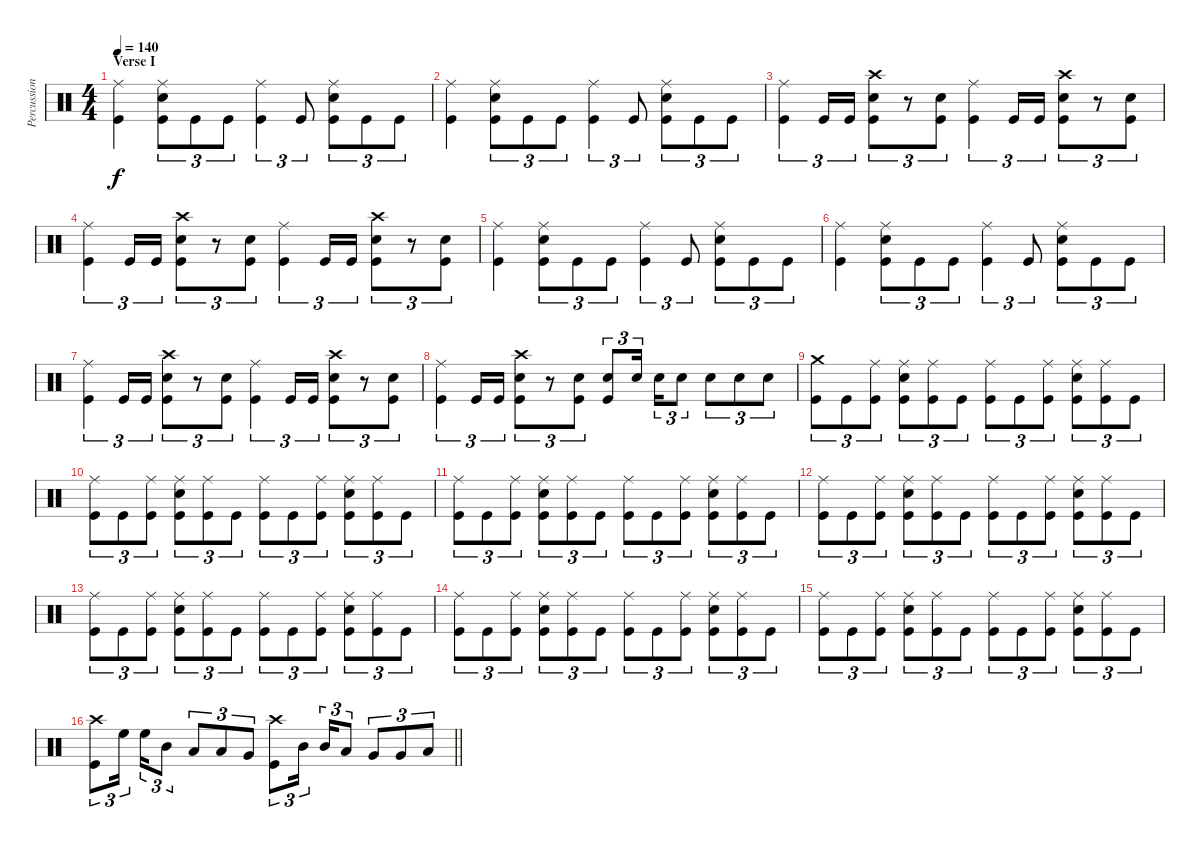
\track ("Percussion" "Percussion") {instrument percussion}
\staff {score}
\articulation defaults
\ts (4 4)
\section ("" "Verse I")
\tempo 140
\clef neutral
\ks c
("Ride (middle)" "Kick (hit)").4{dy f} ("Ride (middle)" "Snare (hit) 2" "Kick (hit)").8{tu (3 2)} "Kick (hit)".8{tu (3 2)} "Kick (hit)".8{tu (3 2)} ("Ride (middle)" "Kick (hit)").4{tu (3 2)} "Kick (hit)".8{tu (3 2)} ("Ride (middle)" "Snare (hit) 2" "Kick (hit)").8{tu (3 2)} "Kick (hit)".8{tu (3 2)} "Kick (hit)".8{tu (3 2)} |
("Ride (middle)" "Kick (hit)").4 ("Ride (middle)" "Snare (hit) 2" "Kick (hit)").8{tu (3 2)} "Kick (hit)".8{tu (3 2)} "Kick (hit)".8{tu (3 2)} ("Ride (middle)" "Kick (hit)").4{tu (3 2)} "Kick (hit)".8{tu (3 2)} ("Ride (middle)" "Snare (hit) 2" "Kick (hit)").8{tu (3 2)} "Kick (hit)".8{tu (3 2)} "Kick (hit)".8{tu (3 2)} |
("Ride (middle)" "Kick (hit)").4{tu (3 2)} "Kick (hit)".16{tu (3 2)} "Kick (hit)".16{tu (3 2)} ("Crash high (hit)" "Snare (hit) 2" "Kick (hit)").8{tu (3 2)} r.8{tu (3 2)} ("Snare (hit) 2" "Kick (hit)").8{tu (3 2)} ("Ride (middle)" "Kick (hit)").4{tu (3 2)} "Kick (hit)".16{tu (3 2)} "Kick (hit)".16{tu (3 2)} ("Crash high (hit)" "Snare (hit) 2" "Kick (hit)").8{tu (3 2)} r.8{tu (3 2)} ("Snare (hit) 2" "Kick (hit)").8{tu (3 2)} |
("Ride (middle)" "Kick (hit)").4{tu (3 2)} "Kick (hit)".16{tu (3 2)} "Kick (hit)".16{tu (3 2)} ("Crash high (hit)" "Snare (hit) 2" "Kick (hit)").8{tu (3 2)} r.8{tu (3 2)} ("Snare (hit) 2" "Kick (hit)").8{tu (3 2)} ("Ride (middle)" "Kick (hit)").4{tu (3 2)} "Kick (hit)".16{tu (3 2)} "Kick (hit)".16{tu (3 2)} ("Crash high (hit)" "Snare (hit) 2" "Kick (hit)").8{tu (3 2)} r.8{tu (3 2)} ("Snare (hit) 2" "Kick (hit)").8{tu (3 2)} |
("Ride (middle)" "Kick (hit)").4 ("Ride (middle)" "Snare (hit) 2" "Kick (hit)").8{tu (3 2)} "Kick (hit)".8{tu (3 2)} "Kick (hit)".8{tu (3 2)} ("Ride (middle)" "Kick (hit)").4{tu (3 2)} "Kick (hit)".8{tu (3 2)} ("Ride (middle)" "Snare (hit) 2" "Kick (hit)").8{tu (3 2)} "Kick (hit)".8{tu (3 2)} "Kick (hit)".8{tu (3 2)} |
("Ride (middle)" "Kick (hit)").4 ("Ride (middle)" "Snare (hit) 2" "Kick (hit)").8{tu (3 2)} "Kick (hit)".8{tu (3 2)} "Kick (hit)".8{tu (3 2)} ("Ride (middle)" "Kick (hit)").4{tu (3 2)} "Kick (hit)".8{tu (3 2)} ("Ride (middle)" "Snare (hit) 2" "Kick (hit)").8{tu (3 2)} "Kick (hit)".8{tu (3 2)} "Kick (hit)".8{tu (3 2)} |
("Ride (middle)" "Kick (hit)").4{tu (3 2)} "Kick (hit)".16{tu (3 2)} "Kick (hit)".16{tu (3 2)} ("Crash high (hit)" "Snare (hit) 2" "Kick (hit)").8{tu (3 2)} r.8{tu (3 2)} ("Snare (hit) 2" "Kick (hit)").8{tu (3 2)} ("Ride (middle)" "Kick (hit)").4{tu (3 2)} "Kick (hit)".16{tu (3 2)} "Kick (hit)".16{tu (3 2)} ("Crash high (hit)" "Snare (hit) 2" "Kick (hit)").8{tu (3 2)} r.8{tu (3 2)} ("Snare (hit) 2" "Kick (hit)").8{tu (3 2)} |
("Ride (middle)" "Kick (hit)").4{tu (3 2)} "Kick (hit)".16{tu (3 2)} "Kick (hit)".16{tu (3 2)} ("Crash high (hit)" "Snare (hit) 2" "Kick (hit)").8{tu (3 2)} r.8{tu (3 2)} ("Snare (hit) 2" "Kick (hit)").8{tu (3 2)} ("Snare (hit) 2" "Kick (hit)").8{tu (3 2)} "Snare (hit) 2".16{tu (3 2)} "Snare (hit) 2".16{tu (3 2)} "Snare (hit) 2".8{tu (3 2)} "Snare (hit) 2".8{tu (3 2)} "Snare (hit) 2".8{tu (3 2)} "Snare (hit) 2".8{tu (3 2)} |
("Crash medium (hit)" "Kick (hit)").8{tu (3 2)} "Kick (hit)".8{tu (3 2)} ("Ride (middle)" "Kick (hit)").8{tu (3 2)} ("Ride (middle)" "Snare (hit) 2" "Kick (hit)").8{tu (3 2)} ("Ride (middle)" "Kick (hit)").8{tu (3 2)} "Kick (hit)".8{tu (3 2)} ("Ride (middle)" "Kick (hit)").8{tu (3 2)} "Kick (hit)".8{tu (3 2)} ("Ride (middle)" "Kick (hit)").8{tu (3 2)} ("Ride (middle)" "Snare (hit) 2" "Kick (hit)").8{tu (3 2)} ("Ride (middle)" "Kick (hit)").8{tu (3 2)} "Kick (hit)".8{tu (3 2)} |
("Ride (middle)" "Kick (hit)").8{tu (3 2)} "Kick (hit)".8{tu (3 2)} ("Ride (middle)" "Kick (hit)").8{tu (3 2)} ("Ride (middle)" "Snare (hit) 2" "Kick (hit)").8{tu (3 2)} ("Ride (middle)" "Kick (hit)").8{tu (3 2)} "Kick (hit)".8{tu (3 2)} ("Ride (middle)" "Kick (hit)").8{tu (3 2)} "Kick (hit)".8{tu (3 2)} ("Ride (middle)" "Kick (hit)").8{tu (3 2)} ("Ride (middle)" "Snare (hit) 2" "Kick (hit)").8{tu (3 2)} ("Ride (middle)" "Kick (hit)").8{tu (3 2)} "Kick (hit)".8{tu (3 2)} |
("Ride (middle)" "Kick (hit)").8{tu (3 2)} "Kick (hit)".8{tu (3 2)} ("Ride (middle)" "Kick (hit)").8{tu (3 2)} ("Ride (middle)" "Snare (hit) 2" "Kick (hit)").8{tu (3 2)} ("Ride (middle)" "Kick (hit)").8{tu (3 2)} "Kick (hit)".8{tu (3 2)} ("Ride (middle)" "Kick (hit)").8{tu (3 2)} "Kick (hit)".8{tu (3 2)} ("Ride (middle)" "Kick (hit)").8{tu (3 2)} ("Ride (middle)" "Snare (hit) 2" "Kick (hit)").8{tu (3 2)} ("Ride (middle)" "Kick (hit)").8{tu (3 2)} "Kick (hit)".8{tu (3 2)} |
("Ride (middle)" "Kick (hit)").8{tu (3 2)} "Kick (hit)".8{tu (3 2)} ("Ride (middle)" "Kick (hit)").8{tu (3 2)} ("Ride (middle)" "Snare (hit) 2" "Kick (hit)").8{tu (3 2)} ("Ride (middle)" "Kick (hit)").8{tu (3 2)} "Kick (hit)".8{tu (3 2)} ("Ride (middle)" "Kick (hit)").8{tu (3 2)} "Kick (hit)".8{tu (3 2)} ("Ride (middle)" "Kick (hit)").8{tu (3 2)} ("Ride (middle)" "Snare (hit) 2" "Kick (hit)").8{tu (3 2)} ("Ride (middle)" "Kick (hit)").8{tu (3 2)} "Kick (hit)".8{tu (3 2)} |
("Ride (middle)" "Kick (hit)").8{tu (3 2)} "Kick (hit)".8{tu (3 2)} ("Ride (middle)" "Kick (hit)").8{tu (3 2)} ("Ride (middle)" "Snare (hit) 2" "Kick (hit)").8{tu (3 2)} ("Ride (middle)" "Kick (hit)").8{tu (3 2)} "Kick (hit)".8{tu (3 2)} ("Ride (middle)" "Kick (hit)").8{tu (3 2)} "Kick (hit)".8{tu (3 2)} ("Ride (middle)" "Kick (hit)").8{tu (3 2)} ("Ride (middle)" "Snare (hit) 2" "Kick (hit)").8{tu (3 2)} ("Ride (middle)" "Kick (hit)").8{tu (3 2)} "Kick (hit)".8{tu (3 2)} |
("Ride (middle)" "Kick (hit)").8{tu (3 2)} "Kick (hit)".8{tu (3 2)} ("Ride (middle)" "Kick (hit)").8{tu (3 2)} ("Ride (middle)" "Snare (hit) 2" "Kick (hit)").8{tu (3 2)} ("Ride (middle)" "Kick (hit)").8{tu (3 2)} "Kick (hit)".8{tu (3 2)} ("Ride (middle)" "Kick (hit)").8{tu (3 2)} "Kick (hit)".8{tu (3 2)} ("Ride (middle)" "Kick (hit)").8{tu (3 2)} ("Ride (middle)" "Snare (hit) 2" "Kick (hit)").8{tu (3 2)} ("Ride (middle)" "Kick (hit)").8{tu (3 2)} "Kick (hit)".8{tu (3 2)} |
("Ride (middle)" "Kick (hit)").8{tu (3 2)} "Kick (hit)".8{tu (3 2)} ("Ride (middle)" "Kick (hit)").8{tu (3 2)} ("Ride (middle)" "Snare (hit) 2" "Kick (hit)").8{tu (3 2)} ("Ride (middle)" "Kick (hit)").8{tu (3 2)} "Kick (hit)".8{tu (3 2)} ("Ride (middle)" "Kick (hit)").8{tu (3 2)} "Kick (hit)".8{tu (3 2)} ("Ride (middle)" "Kick (hit)").8{tu (3 2)} ("Ride (middle)" "Snare (hit) 2" "Kick (hit)").8{tu (3 2)} ("Ride (middle)" "Kick (hit)").8{tu (3 2)} "Kick (hit)".8{tu (3 2)} |
\barLineRight lightlight
("Crash high (hit)" "Kick (hit)").8{tu (3 2)} "High Floor Tom (hit)".16{tu (3 2)} "High Floor Tom (hit)".16{tu (3 2)} "Mid Tom (hit)".8{tu (3 2)} "Low Tom (hit)".8{tu (3 2)} "Low Tom (hit)".8{tu (3 2)} "Very Low Tom (hit)".8{tu (3 2)} ("Crash high (hit)" "Kick (hit)").8{tu (3 2)} "Mid Tom (hit)".16{tu (3 2)} "Mid Tom (hit)".16{tu (3 2)} "Low Tom (hit)".8{tu (3 2)} "Very Low Tom (hit)".8{tu (3 2)} "Very Low Tom (hit)".8{tu (3 2)} "Low Floor Tom (hit)".8{tu (3 2)}
